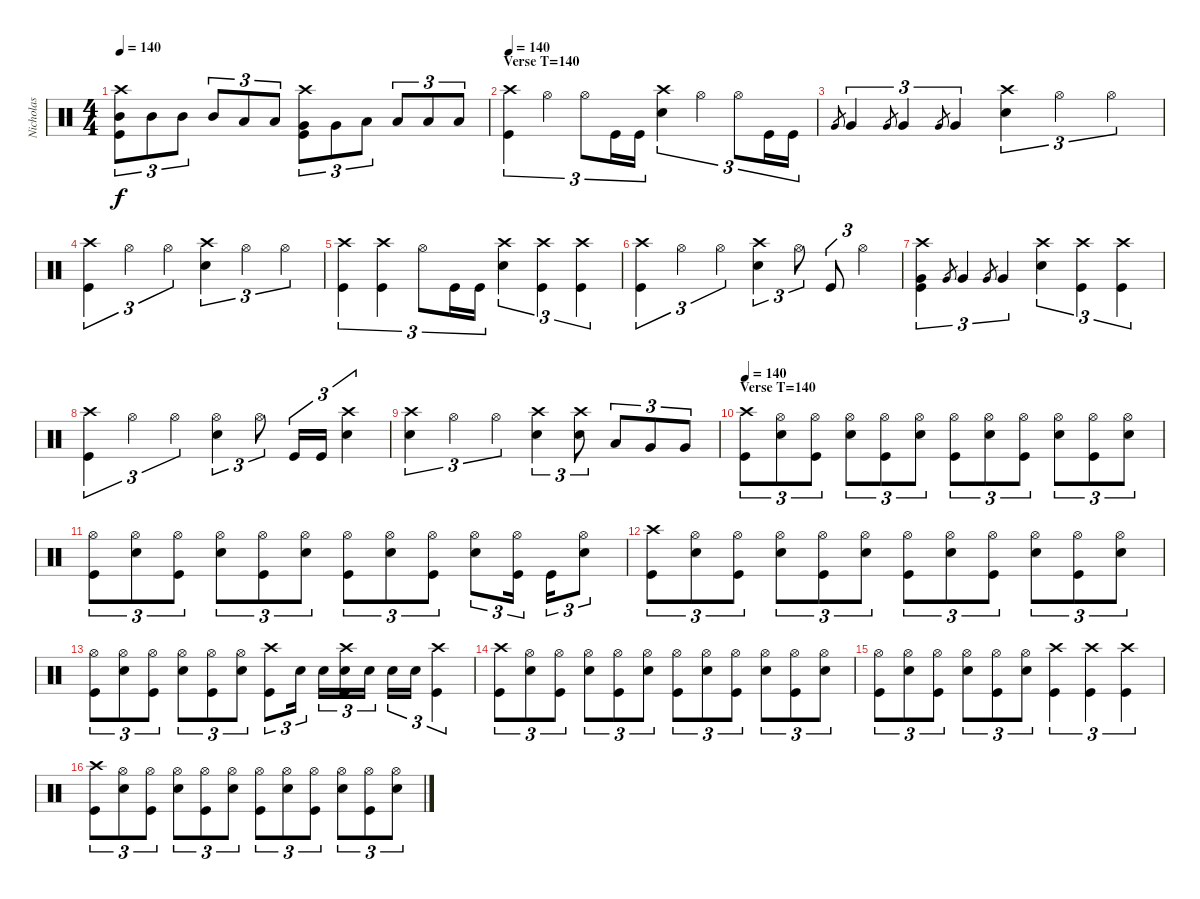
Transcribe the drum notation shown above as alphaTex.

\track ("Nicholas" "Nicholas") {instrument percussion}
\staff {score}
\articulation defaults
\ts (4 4)
\tempo 140
\clef neutral
\ks c
("Crash high (hit)" "Mid Tom (hit)" "Kick (hit)").8{tu (3 2) dy f} "Mid Tom (hit)".8{tu (3 2)} "Mid Tom (hit)".8{tu (3 2)} "Mid Tom (hit)".8{tu (3 2)} "Low Tom (hit)".8{tu (3 2)} "Low Tom (hit)".8{tu (3 2)} ("Crash high (hit)" "Very Low Tom (hit)" "Kick (hit)").8{tu (3 2)} "Very Low Tom (hit)".8{tu (3 2)} "Low Floor Tom (hit)".8{tu (3 2)} "Low Floor Tom (hit)".8{tu (3 2)} "Low Floor Tom (hit)".8{tu (3 2)} "Low Floor Tom (hit)".8{tu (3 2)} |
\section ("" "Verse T=140")
\tempo 140
("Crash high (hit)" "Kick (hit)").4{tu (3 2)} "Hi-Hat (open)".4{tu (3 2)} "Hi-Hat (open)".8{tu (3 2)} "Kick (hit)".16{tu (3 2)} "Kick (hit)".16{tu (3 2)} ("Crash high (hit)" "Electric Snare (hit)").4{tu (3 2)} "Hi-Hat (open)".4{tu (3 2)} "Hi-Hat (open)".8{tu (3 2)} "Kick (hit)".16{tu (3 2)} "Kick (hit)".16{tu (3 2)} |
"Very Low Tom (hit)".8{gr} "Very Low Tom (hit)".4{tu (3 2)} "Very Low Tom (hit)".8{gr} "Very Low Tom (hit)".4{tu (3 2)} "Very Low Tom (hit)".8{gr} "Very Low Tom (hit)".4{tu (3 2)} ("Crash high (hit)" "Electric Snare (hit)").4{tu (3 2)} "Hi-Hat (open)".4{tu (3 2)} "Hi-Hat (open)".4{tu (3 2)} |
("Crash high (hit)" "Kick (hit)").4{tu (3 2)} "Hi-Hat (open)".4{tu (3 2)} "Hi-Hat (open)".4{tu (3 2)} ("Crash high (hit)" "Electric Snare (hit)").4{tu (3 2)} "Hi-Hat (open)".4{tu (3 2)} "Hi-Hat (open)".4{tu (3 2)} |
("Crash high (hit)" "Kick (hit)").4{tu (3 2)} ("Crash high (hit)" "Kick (hit)").4{tu (3 2)} "Hi-Hat (open)".8{tu (3 2)} "Kick (hit)".16{tu (3 2)} "Kick (hit)".16{tu (3 2)} ("Crash high (hit)" "Electric Snare (hit)").4{tu (3 2)} ("Crash high (hit)" "Kick (hit)").4{tu (3 2)} ("Crash high (hit)" "Kick (hit)").4{tu (3 2)} |
("Crash high (hit)" "Kick (hit)").4{tu (3 2)} "Hi-Hat (open)".4{tu (3 2)} "Hi-Hat (open)".4{tu (3 2)} ("Crash high (hit)" "Electric Snare (hit)").4{tu (3 2)} "Hi-Hat (open)".8{tu (3 2)} "Kick (hit)".8{tu (3 2)} "Hi-Hat (open)".4{tu (3 2)} |
("Crash high (hit)" "Very Low Tom (hit)" "Kick (hit)").4{tu (3 2)} "Very Low Tom (hit)".8{gr} "Very Low Tom (hit)".4{tu (3 2)} "Very Low Tom (hit)".8{gr} "Very Low Tom (hit)".4{tu (3 2)} ("Crash high (hit)" "Electric Snare (hit)").4{tu (3 2)} ("Crash high (hit)" "Kick (hit)").4{tu (3 2)} ("Crash high (hit)" "Kick (hit)").4{tu (3 2)} |
("Crash high (hit)" "Kick (hit)").4{tu (3 2)} "Hi-Hat (open)".4{tu (3 2)} "Hi-Hat (open)".4{tu (3 2)} ("Hi-Hat (open)" "Electric Snare (hit)").4{tu (3 2)} "Hi-Hat (open)".8{tu (3 2)} "Kick (hit)".16{tu (3 2)} "Kick (hit)".16{tu (3 2)} ("Crash high (hit)" "Electric Snare (hit)").4{tu (3 2)} |
("Crash high (hit)" "Electric Snare (hit)").4{tu (3 2)} "Hi-Hat (open)".4{tu (3 2)} "Hi-Hat (open)".4{tu (3 2)} ("Crash high (hit)" "Electric Snare (hit)").4{tu (3 2)} ("Crash high (hit)" "Electric Snare (hit)").8{tu (3 2)} "Low Tom (hit)".8{tu (3 2)} "Very Low Tom (hit)".8{tu (3 2)} "Very Low Tom (hit)".8{tu (3 2)} |
\section ("" "Verse T=140")
\tempo 140
("Crash high (hit)" "Kick (hit)").8{tu (3 2)} ("Hi-Hat (open)" "Electric Snare (hit)").8{tu (3 2)} ("Hi-Hat (open)" "Kick (hit)").8{tu (3 2)} ("Hi-Hat (open)" "Electric Snare (hit)").8{tu (3 2)} ("Hi-Hat (open)" "Kick (hit)").8{tu (3 2)} ("Hi-Hat (open)" "Electric Snare (hit)").8{tu (3 2)} ("Hi-Hat (open)" "Kick (hit)").8{tu (3 2)} ("Hi-Hat (open)" "Electric Snare (hit)").8{tu (3 2)} ("Hi-Hat (open)" "Kick (hit)").8{tu (3 2)} ("Hi-Hat (open)" "Electric Snare (hit)").8{tu (3 2)} ("Hi-Hat (open)" "Kick (hit)").8{tu (3 2)} ("Hi-Hat (open)" "Electric Snare (hit)").8{tu (3 2)} |
("Hi-Hat (open)" "Kick (hit)").8{tu (3 2)} ("Hi-Hat (open)" "Electric Snare (hit)").8{tu (3 2)} ("Hi-Hat (open)" "Kick (hit)").8{tu (3 2)} ("Hi-Hat (open)" "Electric Snare (hit)").8{tu (3 2)} ("Hi-Hat (open)" "Kick (hit)").8{tu (3 2)} ("Hi-Hat (open)" "Electric Snare (hit)").8{tu (3 2)} ("Hi-Hat (open)" "Kick (hit)").8{tu (3 2)} ("Hi-Hat (open)" "Electric Snare (hit)").8{tu (3 2)} ("Hi-Hat (open)" "Kick (hit)").8{tu (3 2)} ("Hi-Hat (open)" "Electric Snare (hit)").8{tu (3 2)} ("Hi-Hat (open)" "Kick (hit)").16{tu (3 2)} "Kick (hit)".16{tu (3 2)} ("Hi-Hat (open)" "Electric Snare (hit)").8{tu (3 2)} |
("Crash high (hit)" "Kick (hit)").8{tu (3 2)} ("Hi-Hat (open)" "Electric Snare (hit)").8{tu (3 2)} ("Hi-Hat (open)" "Kick (hit)").8{tu (3 2)} ("Hi-Hat (open)" "Electric Snare (hit)").8{tu (3 2)} ("Hi-Hat (open)" "Kick (hit)").8{tu (3 2)} ("Hi-Hat (open)" "Electric Snare (hit)").8{tu (3 2)} ("Hi-Hat (open)" "Kick (hit)").8{tu (3 2)} ("Hi-Hat (open)" "Electric Snare (hit)").8{tu (3 2)} ("Hi-Hat (open)" "Kick (hit)").8{tu (3 2)} ("Hi-Hat (open)" "Electric Snare (hit)").8{tu (3 2)} ("Hi-Hat (open)" "Kick (hit)").8{tu (3 2)} ("Hi-Hat (open)" "Electric Snare (hit)").8{tu (3 2)} |
("Hi-Hat (open)" "Kick (hit)").8{tu (3 2)} ("Hi-Hat (open)" "Electric Snare (hit)").8{tu (3 2)} ("Hi-Hat (open)" "Kick (hit)").8{tu (3 2)} ("Hi-Hat (open)" "Electric Snare (hit)").8{tu (3 2)} ("Hi-Hat (open)" "Kick (hit)").8{tu (3 2)} ("Hi-Hat (open)" "Electric Snare (hit)").8{tu (3 2)} ("Crash high (hit)" "Kick (hit)").8{tu (3 2)} "Electric Snare (hit)".16{tu (3 2)} "Electric Snare (hit)".16{tu (3 2)} ("Crash high (hit)" "Electric Snare (hit)" "Kick (hit)").16{tu (3 2)} "Electric Snare (hit)".16{tu (3 2)} "Electric Snare (hit)".16{tu (3 2)} "Electric Snare (hit)".16{tu (3 2)} ("Crash high (hit)" "Kick (hit)").4{tu (3 2)} |
("Crash high (hit)" "Kick (hit)").8{tu (3 2)} ("Hi-Hat (open)" "Electric Snare (hit)").8{tu (3 2)} ("Hi-Hat (open)" "Kick (hit)").8{tu (3 2)} ("Hi-Hat (open)" "Electric Snare (hit)").8{tu (3 2)} ("Hi-Hat (open)" "Kick (hit)").8{tu (3 2)} ("Hi-Hat (open)" "Electric Snare (hit)").8{tu (3 2)} ("Hi-Hat (open)" "Kick (hit)").8{tu (3 2)} ("Hi-Hat (open)" "Electric Snare (hit)").8{tu (3 2)} ("Hi-Hat (open)" "Kick (hit)").8{tu (3 2)} ("Hi-Hat (open)" "Electric Snare (hit)").8{tu (3 2)} ("Hi-Hat (open)" "Kick (hit)").8{tu (3 2)} ("Hi-Hat (open)" "Electric Snare (hit)").8{tu (3 2)} |
("Hi-Hat (open)" "Kick (hit)").8{tu (3 2)} ("Hi-Hat (open)" "Electric Snare (hit)").8{tu (3 2)} ("Hi-Hat (open)" "Kick (hit)").8{tu (3 2)} ("Hi-Hat (open)" "Electric Snare (hit)").8{tu (3 2)} ("Hi-Hat (open)" "Kick (hit)").8{tu (3 2)} ("Hi-Hat (open)" "Electric Snare (hit)").8{tu (3 2)} ("Crash high (hit)" "Kick (hit)").4{tu (3 2)} ("Crash high (hit)" "Kick (hit)").4{tu (3 2)} ("Crash high (hit)" "Kick (hit)").4{tu (3 2)} |
("Crash high (hit)" "Kick (hit)").8{tu (3 2)} ("Hi-Hat (open)" "Electric Snare (hit)").8{tu (3 2)} ("Hi-Hat (open)" "Kick (hit)").8{tu (3 2)} ("Hi-Hat (open)" "Electric Snare (hit)").8{tu (3 2)} ("Hi-Hat (open)" "Kick (hit)").8{tu (3 2)} ("Hi-Hat (open)" "Electric Snare (hit)").8{tu (3 2)} ("Hi-Hat (open)" "Kick (hit)").8{tu (3 2)} ("Hi-Hat (open)" "Electric Snare (hit)").8{tu (3 2)} ("Hi-Hat (open)" "Kick (hit)").8{tu (3 2)} ("Hi-Hat (open)" "Electric Snare (hit)").8{tu (3 2)} ("Hi-Hat (open)" "Kick (hit)").8{tu (3 2)} ("Hi-Hat (open)" "Electric Snare (hit)").8{tu (3 2)}
